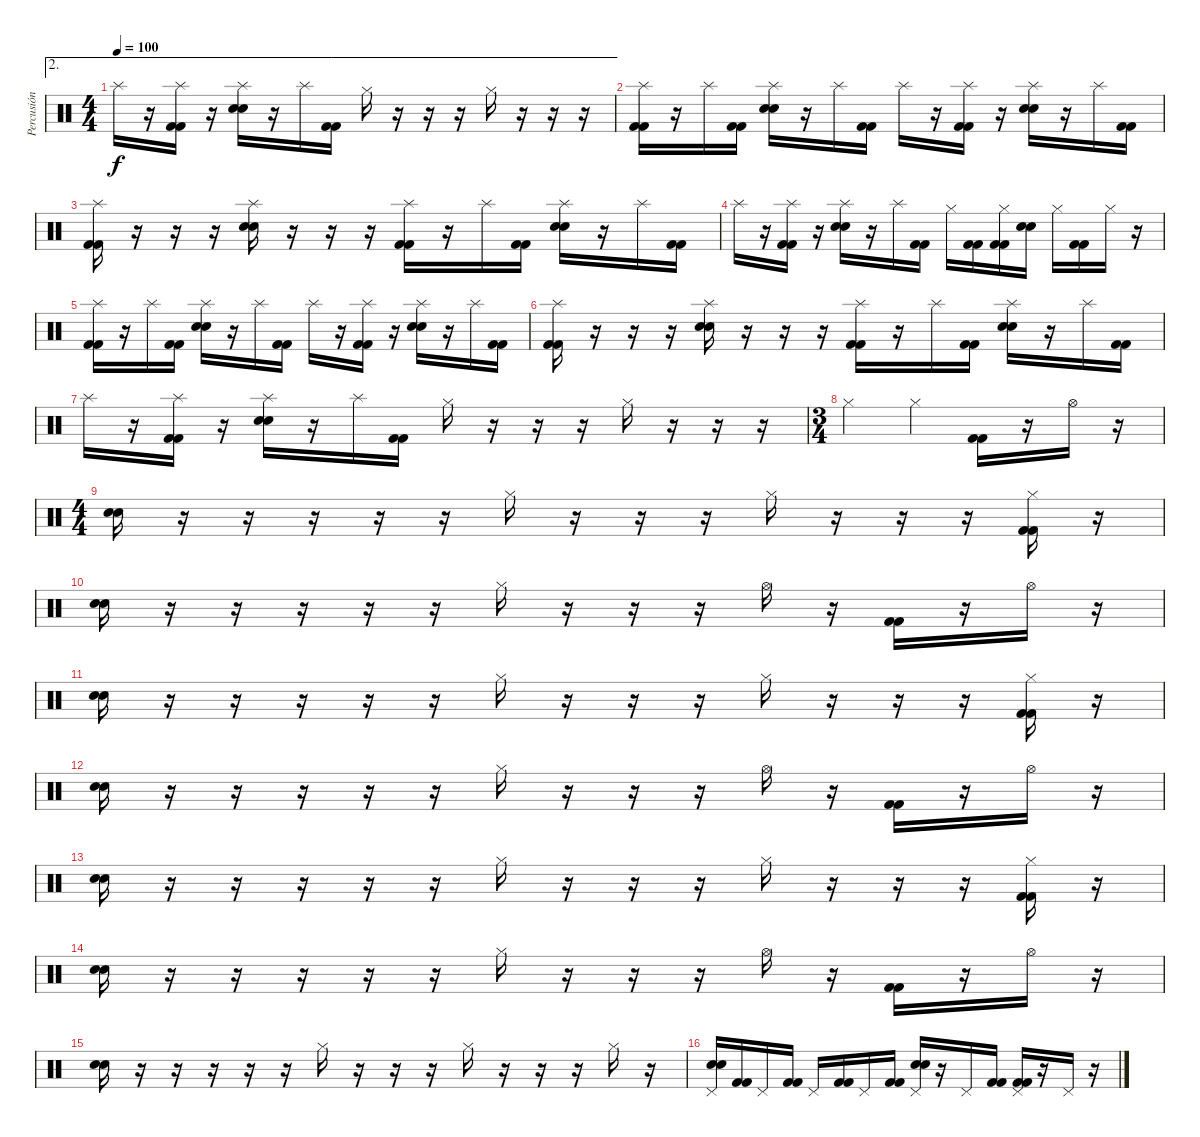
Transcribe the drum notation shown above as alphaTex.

\track ("Percusión" "Percusión") {instrument percussion}
\staff {score}
\articulation defaults
\ae 2
\ts (4 4)
\tempo 100
\clef neutral
\ks c "Splash (hit)".16{dy f}
r.16 ("Splash (hit)" "Kick (hit) 2" "Kick (hit) 2").16 r.16 ("Splash (hit)" "Electric Snare (hit)" "Electric Snare (hit)").16 r.16 "Splash (hit)".16 ("Kick (hit) 2" "Kick (hit) 2").16 "Hi-Hat (closed)".16 r.16 r.16 r.16 "Hi-Hat (closed)".16 r.16 r.16 r.16 |
("Splash (hit)" "Kick (hit) 2" "Kick (hit) 2").16 r.16 "Splash (hit)".16 ("Kick (hit) 2" "Kick (hit) 2").16 ("Splash (hit)" "Electric Snare (hit)" "Electric Snare (hit)").16 r.16 "Splash (hit)".16 ("Kick (hit) 2" "Kick (hit) 2").16 "Splash (hit)".16 r.16 ("Splash (hit)" "Kick (hit) 2" "Kick (hit) 2").16 r.16 ("Splash (hit)" "Electric Snare (hit)" "Electric Snare (hit)").16 r.16 "Splash (hit)".16 ("Kick (hit) 2" "Kick (hit) 2").16 |
("Splash (hit)" "Kick (hit) 2" "Kick (hit) 2").16 r.16 r.16 r.16 ("Splash (hit)" "Electric Snare (hit)" "Electric Snare (hit)").16 r.16 r.16 r.16 ("Splash (hit)" "Kick (hit) 2" "Kick (hit) 2").16 r.16 "Splash (hit)".16 ("Kick (hit) 2" "Kick (hit) 2").16 ("Splash (hit)" "Electric Snare (hit)" "Electric Snare (hit)").16 r.16 "Splash (hit)".16 ("Kick (hit) 2" "Kick (hit) 2").16 |
"Splash (hit)".16 r.16 ("Splash (hit)" "Kick (hit) 2" "Kick (hit) 2").16 r.16 ("Splash (hit)" "Electric Snare (hit)" "Electric Snare (hit)").16 r.16 "Splash (hit)".16 ("Kick (hit) 2" "Kick (hit) 2").16 "Hi-Hat (closed)".16 ("Kick (hit) 2" "Kick (hit) 2").16 ("Hi-Hat (closed)" "Kick (hit) 2" "Kick (hit) 2").16 ("Electric Snare (hit)" "Electric Snare (hit)").16 "Hi-Hat (closed)".16 ("Kick (hit) 2" "Kick (hit) 2").16 "Hi-Hat (closed)".16 r.16 |
("Splash (hit)" "Kick (hit) 2" "Kick (hit) 2").16 r.16 "Splash (hit)".16 ("Kick (hit) 2" "Kick (hit) 2").16 ("Splash (hit)" "Electric Snare (hit)" "Electric Snare (hit)").16 r.16 "Splash (hit)".16 ("Kick (hit) 2" "Kick (hit) 2").16 "Splash (hit)".16 r.16 ("Splash (hit)" "Kick (hit) 2" "Kick (hit) 2").16 r.16 ("Splash (hit)" "Electric Snare (hit)" "Electric Snare (hit)").16 r.16 "Splash (hit)".16 ("Kick (hit) 2" "Kick (hit) 2").16 |
("Splash (hit)" "Kick (hit) 2" "Kick (hit) 2").16 r.16 r.16 r.16 ("Splash (hit)" "Electric Snare (hit)" "Electric Snare (hit)").16 r.16 r.16 r.16 ("Splash (hit)" "Kick (hit) 2" "Kick (hit) 2").16 r.16 "Splash (hit)".16 ("Kick (hit) 2" "Kick (hit) 2").16 ("Splash (hit)" "Electric Snare (hit)" "Electric Snare (hit)").16 r.16 "Splash (hit)".16 ("Kick (hit) 2" "Kick (hit) 2").16 |
"Splash (hit)".16 r.16 ("Splash (hit)" "Kick (hit) 2" "Kick (hit) 2").16 r.16 ("Splash (hit)" "Electric Snare (hit)" "Electric Snare (hit)").16 r.16 "Splash (hit)".16 ("Kick (hit) 2" "Kick (hit) 2").16 "Hi-Hat (closed)".16 r.16 r.16 r.16 "Hi-Hat (closed)".16 r.16 r.16 r.16 |
\ts (3 4)
"Hi-Hat (closed)".4 "Hi-Hat (closed)".4 ("Kick (hit) 2" "Kick (hit) 2").16 r.16 "Hi-Hat (open)".16 r.16 |
\ts (4 4)
("Electric Snare (hit)" "Electric Snare (hit)").16 r.16 r.16 r.16 r.16 r.16 "Hi-Hat (closed)".16 r.16 r.16 r.16 "Hi-Hat (closed)".16 r.16 r.16 r.16 ("Hi-Hat (closed)" "Kick (hit) 2" "Kick (hit) 2").16 r.16 |
("Electric Snare (hit)" "Electric Snare (hit)").16 r.16 r.16 r.16 r.16 r.16 "Hi-Hat (closed)".16 r.16 r.16 r.16 "Hi-Hat (open)".16 r.16 ("Kick (hit) 2" "Kick (hit) 2").16 r.16 "Hi-Hat (open)".16 r.16 |
("Electric Snare (hit)" "Electric Snare (hit)").16 r.16 r.16 r.16 r.16 r.16 "Hi-Hat (closed)".16 r.16 r.16 r.16 "Hi-Hat (closed)".16 r.16 r.16 r.16 ("Hi-Hat (closed)" "Kick (hit) 2" "Kick (hit) 2").16 r.16 |
("Electric Snare (hit)" "Electric Snare (hit)").16 r.16 r.16 r.16 r.16 r.16 "Hi-Hat (closed)".16 r.16 r.16 r.16 "Hi-Hat (open)".16 r.16 ("Kick (hit) 2" "Kick (hit) 2").16 r.16 "Hi-Hat (open)".16 r.16 |
("Electric Snare (hit)" "Electric Snare (hit)").16 r.16 r.16 r.16 r.16 r.16 "Hi-Hat (closed)".16 r.16 r.16 r.16 "Hi-Hat (closed)".16 r.16 r.16 r.16 ("Hi-Hat (closed)" "Kick (hit) 2" "Kick (hit) 2").16 r.16 |
("Electric Snare (hit)" "Electric Snare (hit)").16 r.16 r.16 r.16 r.16 r.16 "Hi-Hat (closed)".16 r.16 r.16 r.16 "Hi-Hat (open)".16 r.16 ("Kick (hit) 2" "Kick (hit) 2").16 r.16 "Hi-Hat (open)".16 r.16 |
("Electric Snare (hit)" "Electric Snare (hit)").16 r.16 r.16 r.16 r.16 r.16 "Hi-Hat (closed)".16 r.16 r.16 r.16 "Hi-Hat (closed)".16 r.16 r.16 r.16 "Hi-Hat (closed)".16 r.16 |
("Pedal Hi-Hat (hit)" "Electric Snare (hit)" "Electric Snare (hit)").16 ("Kick (hit) 2" "Kick (hit) 2").16 "Pedal Hi-Hat (hit)".16 ("Kick (hit) 2" "Kick (hit) 2").16 "Pedal Hi-Hat (hit)".16 ("Kick (hit) 2" "Kick (hit) 2").16 "Pedal Hi-Hat (hit)".16 ("Kick (hit) 2" "Kick (hit) 2").16 ("Pedal Hi-Hat (hit)" "Electric Snare (hit)" "Electric Snare (hit)").16 r.16 "Pedal Hi-Hat (hit)".16 ("Kick (hit) 2" "Kick (hit) 2").16 ("Pedal Hi-Hat (hit)" "Kick (hit) 2" "Kick (hit) 2").16 r.16 "Pedal Hi-Hat (hit)".16 r.16
